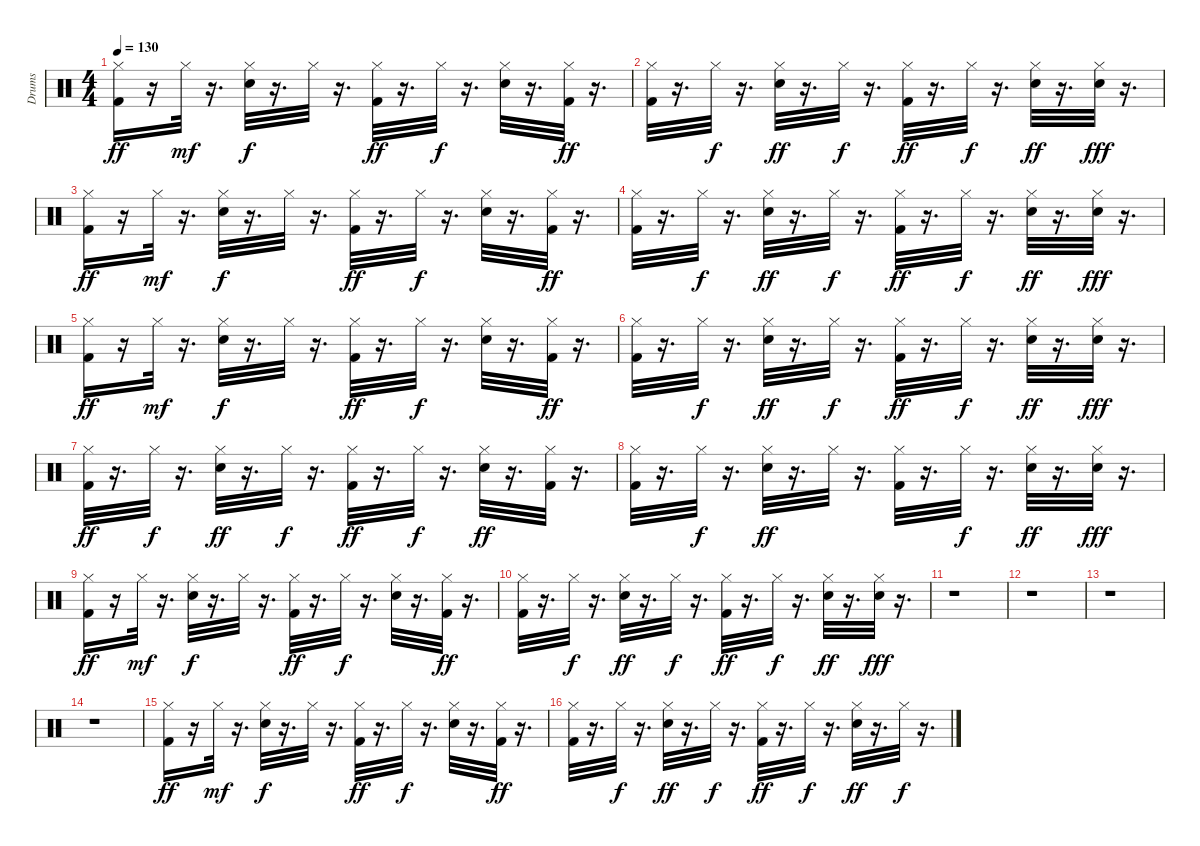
\track ("Drums" "Drums") {instrument percussion}
\staff {score}
\articulation defaults
\ts (4 4)
\tempo 130
\clef neutral
\ks c
("Kick (hit) 2" "Hi-Hat (closed)").16{dy ff} r.16 "Hi-Hat (closed)".32{dy mf} r.16{d} ("Hi-Hat (closed)" "Snare (hit) 2").32{dy f} r.16{d} "Hi-Hat (closed)".32 r.16{d} ("Hi-Hat (closed)" "Kick (hit) 2").32{dy ff} r.16{d} "Hi-Hat (closed)".32{dy f} r.16{d} ("Snare (hit) 2" "Hi-Hat (closed)").32 r.16{d} ("Kick (hit) 2" "Hi-Hat (closed)").32{dy ff} r.16{d} |
("Hi-Hat (closed)" "Kick (hit) 2").32 r.16{d} "Hi-Hat (closed)".32{dy f} r.16{d} ("Hi-Hat (closed)" "Snare (hit) 2").32{dy ff} r.16{d} "Hi-Hat (closed)".32{dy f} r.16{d} ("Hi-Hat (closed)" "Kick (hit) 2").32{dy ff} r.16{d} "Hi-Hat (closed)".32{dy f} r.16{d} ("Hi-Hat (closed)" "Snare (hit) 2").32{dy ff} r.16{d} ("Hand Clap (hit)" "Hi-Hat (closed)").32{dy fff} r.16{d} |
("Kick (hit) 2" "Hi-Hat (closed)").16{dy ff} r.16 "Hi-Hat (closed)".32{dy mf} r.16{d} ("Snare (hit) 2" "Hi-Hat (closed)").32{dy f} r.16{d} "Hi-Hat (closed)".32 r.16{d} ("Hi-Hat (closed)" "Kick (hit) 2").32{dy ff} r.16{d} "Hi-Hat (closed)".32{dy f} r.16{d} ("Hi-Hat (closed)" "Snare (hit) 2").32 r.16{d} ("Hi-Hat (closed)" "Kick (hit) 2").32{dy ff} r.16{d} |
("Kick (hit) 2" "Hi-Hat (closed)").32 r.16{d} "Hi-Hat (closed)".32{dy f} r.16{d} ("Hi-Hat (closed)" "Snare (hit) 2").32{dy ff} r.16{d} "Hi-Hat (closed)".32{dy f} r.16{d} ("Kick (hit) 2" "Hi-Hat (closed)").32{dy ff} r.16{d} "Hi-Hat (closed)".32{dy f} r.16{d} ("Snare (hit) 2" "Hi-Hat (closed)").32{dy ff} r.16{d} ("Hi-Hat (closed)" "Hand Clap (hit)").32{dy fff} r.16{d} |
("Kick (hit) 2" "Hi-Hat (closed)").16{dy ff} r.16 "Hi-Hat (closed)".32{dy mf} r.16{d} ("Hi-Hat (closed)" "Snare (hit) 2").32{dy f} r.16{d} "Hi-Hat (closed)".32 r.16{d} ("Kick (hit) 2" "Hi-Hat (closed)").32{dy ff} r.16{d} "Hi-Hat (closed)".32{dy f} r.16{d} ("Snare (hit) 2" "Hi-Hat (closed)").32 r.16{d} ("Hi-Hat (closed)" "Kick (hit) 2").32{dy ff} r.16{d} |
("Hi-Hat (closed)" "Kick (hit) 2").32 r.16{d} "Hi-Hat (closed)".32{dy f} r.16{d} ("Hi-Hat (closed)" "Snare (hit) 2").32{dy ff} r.16{d} "Hi-Hat (closed)".32{dy f} r.16{d} ("Hi-Hat (closed)" "Kick (hit) 2").32{dy ff} r.16{d} "Hi-Hat (closed)".32{dy f} r.16{d} ("Hi-Hat (closed)" "Snare (hit) 2").32{dy ff} r.16{d} ("Hi-Hat (closed)" "Hand Clap (hit)").32{dy fff} r.16{d} |
("Kick (hit) 2" "Hi-Hat (closed)").32{dy ff} r.16{d} "Hi-Hat (closed)".32{dy f} r.16{d} ("Hi-Hat (closed)" "Snare (hit) 2").32{dy ff} r.16{d} "Hi-Hat (closed)".32{dy f} r.16{d} ("Hi-Hat (closed)" "Kick (hit) 2").32{dy ff} r.16{d} "Hi-Hat (closed)".32{dy f} r.16{d} ("Snare (hit) 2" "Hi-Hat (closed)").32{dy ff} r.16{d} ("Hi-Hat (closed)" "Kick (hit) 2").32 r.16{d} |
("Kick (hit) 2" "Hi-Hat (closed)").32 r.16{d} "Hi-Hat (closed)".32{dy f} r.16{d} ("Snare (hit) 2" "Hi-Hat (closed)").32{dy ff} r.16{d} "Hi-Hat (closed)".32 r.16{d} ("Hi-Hat (closed)" "Kick (hit) 2").32 r.16{d} "Hi-Hat (closed)".32{dy f} r.16{d} ("Hi-Hat (closed)" "Snare (hit) 2").32{dy ff} r.16{d} ("Hi-Hat (closed)" "Hand Clap (hit)").32{dy fff} r.16{d} |
("Hi-Hat (closed)" "Kick (hit) 2").16{dy ff} r.16 "Hi-Hat (closed)".32{dy mf} r.16{d} ("Snare (hit) 2" "Hi-Hat (closed)").32{dy f} r.16{d} "Hi-Hat (closed)".32 r.16{d} ("Hi-Hat (closed)" "Kick (hit) 2").32{dy ff} r.16{d} "Hi-Hat (closed)".32{dy f} r.16{d} ("Snare (hit) 2" "Hi-Hat (closed)").32 r.16{d} ("Kick (hit) 2" "Hi-Hat (closed)").32{dy ff} r.16{d} |
("Hi-Hat (closed)" "Kick (hit) 2").32 r.16{d} "Hi-Hat (closed)".32{dy f} r.16{d} ("Hi-Hat (closed)" "Snare (hit) 2").32{dy ff} r.16{d} "Hi-Hat (closed)".32{dy f} r.16{d} ("Hi-Hat (closed)" "Kick (hit) 2").32{dy ff} r.16{d} "Hi-Hat (closed)".32{dy f} r.16{d} ("Snare (hit) 2" "Hi-Hat (closed)").32{dy ff} r.16{d} ("Hand Clap (hit)" "Hi-Hat (closed)").32{dy fff} r.16{d} |
r.1 |
r.1 |
r.1 |
r.1 |
("Kick (hit) 2" "Hi-Hat (closed)").16{dy ff} r.16 "Hi-Hat (closed)".32{dy mf} r.16{d} ("Snare (hit) 2" "Hi-Hat (closed)").32{dy f} r.16{d} "Hi-Hat (closed)".32 r.16{d} ("Hi-Hat (closed)" "Kick (hit) 2").32{dy ff} r.16{d} "Hi-Hat (closed)".32{dy f} r.16{d} ("Hi-Hat (closed)" "Snare (hit) 2").32 r.16{d} ("Kick (hit) 2" "Hi-Hat (closed)").32{dy ff} r.16{d} |
("Hi-Hat (closed)" "Kick (hit) 2").32 r.16{d} "Hi-Hat (closed)".32{dy f} r.16{d} ("Hi-Hat (closed)" "Snare (hit) 2").32{dy ff} r.16{d} "Hi-Hat (closed)".32{dy f} r.16{d} ("Hi-Hat (closed)" "Kick (hit) 2").32{dy ff} r.16{d} "Hi-Hat (closed)".32{dy f} r.16{d} ("Snare (hit) 2" "Hi-Hat (closed)").32{dy ff} r.16{d} "Hi-Hat (closed)".32{dy f} r.16{d}
